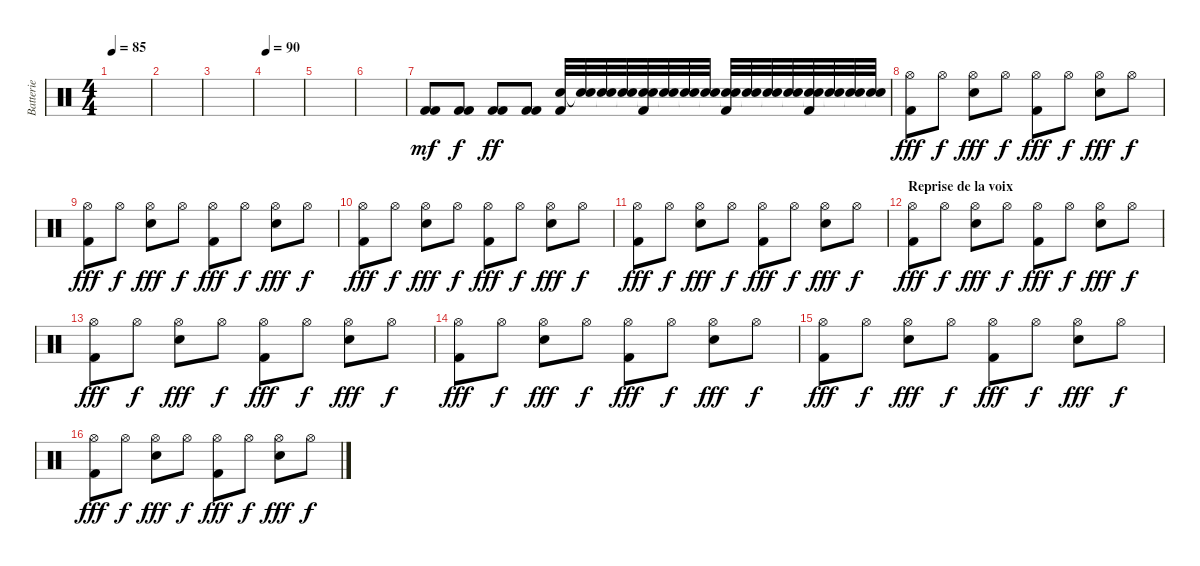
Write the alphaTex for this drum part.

\track ("Batterie" "Batterie") {instrument percussion}
\staff {score}
\articulation defaults
\ts (4 4)
\tempo 85
\clef neutral
\ks c
|
|
|
\tempo 90
|
|
|
("Kick (hit) 2" "Kick (hit) 2").8{dy mf} ("Kick (hit) 2" "Kick (hit) 2").8{dy f} ("Kick (hit) 2" "Kick (hit) 2").8{dy ff} ("Kick (hit) 2" "Kick (hit) 2").8 ("Snare (hit) 2" "Kick (hit) 2").32 ("Snare (hit)"{t} "Snare (hit) 2").32 ("Snare (hit) 2" "Snare (hit)"{t}).32 ("Snare (hit)"{t} "Snare (hit) 2").32 ("Snare (hit) 2" "Snare (hit)"{t} "Kick (hit) 2").32 ("Snare (hit)"{t} "Snare (hit) 2").32 ("Snare (hit) 2" "Snare (hit)"{t}).32 ("Snare (hit)"{t} "Snare (hit) 2").32 ("Snare (hit) 2" "Snare (hit)"{t} "Kick (hit) 2").32 ("Snare (hit)"{t} "Snare (hit) 2").32 ("Snare (hit) 2" "Snare (hit)"{t}).32 ("Snare (hit)"{t} "Snare (hit) 2").32 ("Snare (hit) 2" "Snare (hit)"{t} "Kick (hit) 2").32 ("Snare (hit)"{t} "Snare (hit) 2").32 ("Snare (hit) 2" "Snare (hit)"{t}).32 ("Snare (hit)"{t} "Snare (hit) 2").32 |
("Hi-Hat (open)" "Kick (hit) 2").8{dy fff} "Hi-Hat (open)".8{dy f} ("Hi-Hat (open)" "Snare (hit) 2").8{dy fff} "Hi-Hat (open)".8{dy f} ("Hi-Hat (open)" "Kick (hit) 2").8{dy fff} "Hi-Hat (open)".8{dy f} ("Hi-Hat (open)" "Snare (hit) 2").8{dy fff} "Hi-Hat (open)".8{dy f} |
("Hi-Hat (open)" "Kick (hit) 2").8{dy fff} "Hi-Hat (open)".8{dy f} ("Hi-Hat (open)" "Snare (hit) 2").8{dy fff} "Hi-Hat (open)".8{dy f} ("Hi-Hat (open)" "Kick (hit) 2").8{dy fff} "Hi-Hat (open)".8{dy f} ("Hi-Hat (open)" "Snare (hit) 2").8{dy fff} "Hi-Hat (open)".8{dy f} |
("Hi-Hat (open)" "Kick (hit) 2").8{dy fff} "Hi-Hat (open)".8{dy f} ("Hi-Hat (open)" "Snare (hit) 2").8{dy fff} "Hi-Hat (open)".8{dy f} ("Hi-Hat (open)" "Kick (hit) 2").8{dy fff} "Hi-Hat (open)".8{dy f} ("Hi-Hat (open)" "Snare (hit) 2").8{dy fff} "Hi-Hat (open)".8{dy f} |
("Hi-Hat (open)" "Kick (hit) 2").8{dy fff} "Hi-Hat (open)".8{dy f} ("Hi-Hat (open)" "Snare (hit) 2").8{dy fff} "Hi-Hat (open)".8{dy f} ("Hi-Hat (open)" "Kick (hit) 2").8{dy fff} "Hi-Hat (open)".8{dy f} ("Hi-Hat (open)" "Snare (hit) 2").8{dy fff} "Hi-Hat (open)".8{dy f} |
\section ("" "Reprise de la voix")
("Hi-Hat (open)" "Kick (hit) 2").8{dy fff} "Hi-Hat (open)".8{dy f} ("Hi-Hat (open)" "Snare (hit) 2").8{dy fff} "Hi-Hat (open)".8{dy f} ("Hi-Hat (open)" "Kick (hit) 2").8{dy fff} "Hi-Hat (open)".8{dy f} ("Hi-Hat (open)" "Snare (hit) 2").8{dy fff} "Hi-Hat (open)".8{dy f} |
("Hi-Hat (open)" "Kick (hit) 2").8{dy fff} "Hi-Hat (open)".8{dy f} ("Hi-Hat (open)" "Snare (hit) 2").8{dy fff} "Hi-Hat (open)".8{dy f} ("Hi-Hat (open)" "Kick (hit) 2").8{dy fff} "Hi-Hat (open)".8{dy f} ("Hi-Hat (open)" "Snare (hit) 2").8{dy fff} "Hi-Hat (open)".8{dy f} |
("Hi-Hat (open)" "Kick (hit) 2").8{dy fff} "Hi-Hat (open)".8{dy f} ("Hi-Hat (open)" "Snare (hit) 2").8{dy fff} "Hi-Hat (open)".8{dy f} ("Hi-Hat (open)" "Kick (hit) 2").8{dy fff} "Hi-Hat (open)".8{dy f} ("Hi-Hat (open)" "Snare (hit) 2").8{dy fff} "Hi-Hat (open)".8{dy f} |
("Hi-Hat (open)" "Kick (hit) 2").8{dy fff} "Hi-Hat (open)".8{dy f} ("Hi-Hat (open)" "Snare (hit) 2").8{dy fff} "Hi-Hat (open)".8{dy f} ("Hi-Hat (open)" "Kick (hit) 2").8{dy fff} "Hi-Hat (open)".8{dy f} ("Hi-Hat (open)" "Snare (hit) 2").8{dy fff} "Hi-Hat (open)".8{dy f} |
("Hi-Hat (open)" "Kick (hit) 2").8{dy fff} "Hi-Hat (open)".8{dy f} ("Hi-Hat (open)" "Snare (hit) 2").8{dy fff} "Hi-Hat (open)".8{dy f} ("Hi-Hat (open)" "Kick (hit) 2").8{dy fff} "Hi-Hat (open)".8{dy f} ("Hi-Hat (open)" "Snare (hit) 2").8{dy fff} "Hi-Hat (open)".8{dy f}
